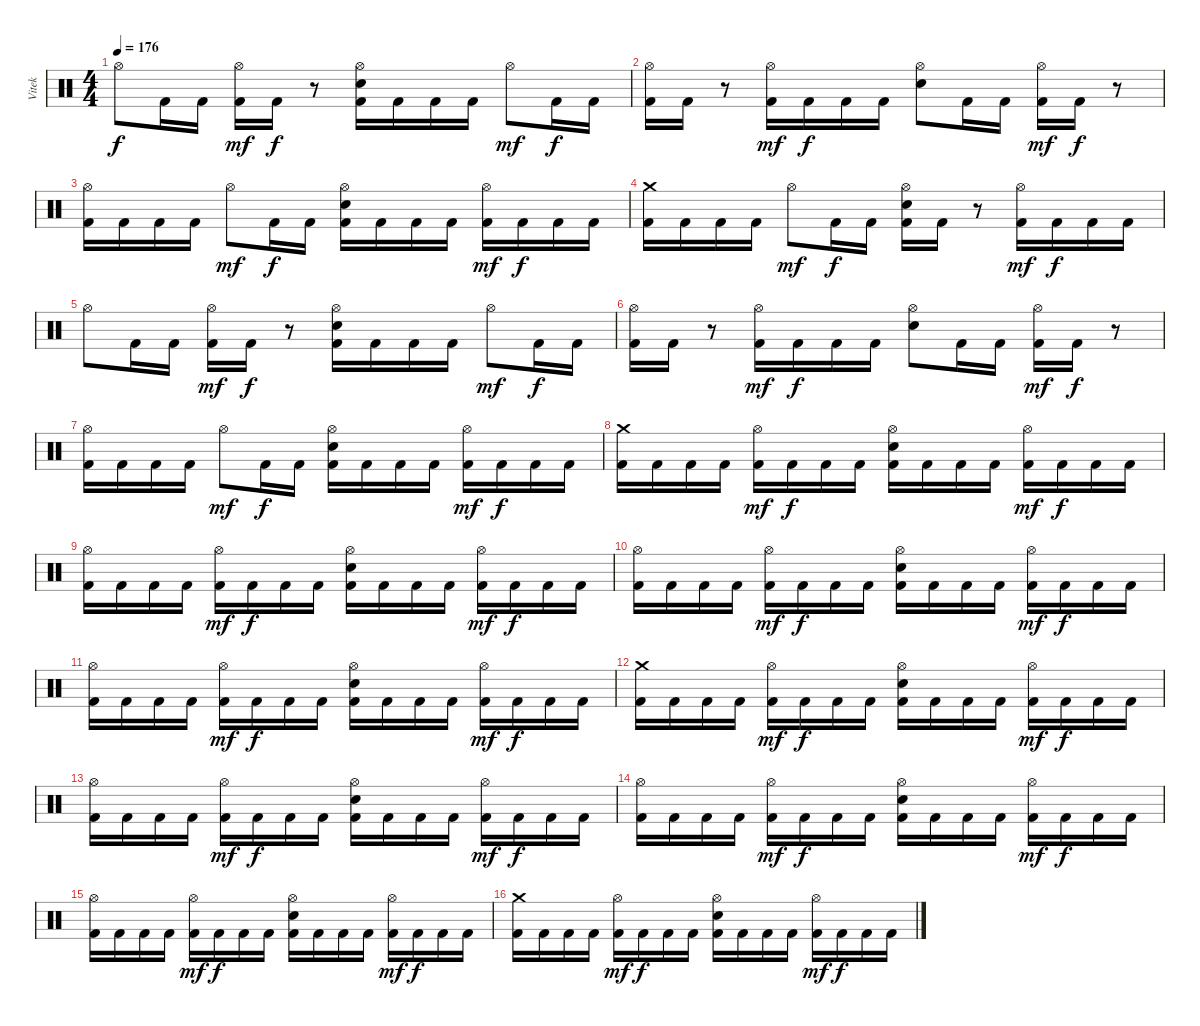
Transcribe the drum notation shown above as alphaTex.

\track ("Vitek" "Vitek") {instrument percussion}
\staff {score}
\articulation defaults
\ts (4 4)
\tempo 176
\clef neutral
\ks c "Hi-Hat (open)".8{dy f} "Kick (hit) 2".16 "Kick (hit) 2".16
("Hi-Hat (open)" "Kick (hit) 2").16{dy mf} "Kick (hit) 2".16{dy f} r.8 ("Hi-Hat (open)" "Electric Snare (hit)" "Kick (hit) 2").16 "Kick (hit) 2".16 "Kick (hit) 2".16 "Kick (hit) 2".16 "Hi-Hat (open)".8{dy mf} "Kick (hit) 2".16{dy f} "Kick (hit) 2".16 |
("Hi-Hat (open)" "Kick (hit) 2").16 "Kick (hit) 2".16 r.8 ("Hi-Hat (open)" "Kick (hit) 2").16{dy mf} "Kick (hit) 2".16{dy f} "Kick (hit) 2".16 "Kick (hit) 2".16 ("Hi-Hat (open)" "Electric Snare (hit)").8 "Kick (hit) 2".16 "Kick (hit) 2".16 ("Hi-Hat (open)" "Kick (hit) 2").16{dy mf} "Kick (hit) 2".16{dy f} r.8 |
("Hi-Hat (open)" "Kick (hit) 2").16 "Kick (hit) 2".16 "Kick (hit) 2".16 "Kick (hit) 2".16 "Hi-Hat (open)".8{dy mf} "Kick (hit) 2".16{dy f} "Kick (hit) 2".16 ("Hi-Hat (open)" "Electric Snare (hit)" "Kick (hit) 2").16 "Kick (hit) 2".16 "Kick (hit) 2".16 "Kick (hit) 2".16 ("Hi-Hat (open)" "Kick (hit) 2").16{dy mf} "Kick (hit) 2".16{dy f} "Kick (hit) 2".16 "Kick (hit) 2".16 |
("Crash medium (hit)" "Kick (hit) 2").16 "Kick (hit) 2".16 "Kick (hit) 2".16 "Kick (hit) 2".16 "Hi-Hat (open)".8{dy mf} "Kick (hit) 2".16{dy f} "Kick (hit) 2".16 ("Hi-Hat (open)" "Electric Snare (hit)" "Kick (hit) 2").16 "Kick (hit) 2".16 r.8 ("Hi-Hat (open)" "Kick (hit) 2").16{dy mf} "Kick (hit) 2".16{dy f} "Kick (hit) 2".16 "Kick (hit) 2".16 |
"Hi-Hat (open)".8 "Kick (hit) 2".16 "Kick (hit) 2".16 ("Hi-Hat (open)" "Kick (hit) 2").16{dy mf} "Kick (hit) 2".16{dy f} r.8 ("Hi-Hat (open)" "Electric Snare (hit)" "Kick (hit) 2").16 "Kick (hit) 2".16 "Kick (hit) 2".16 "Kick (hit) 2".16 "Hi-Hat (open)".8{dy mf} "Kick (hit) 2".16{dy f} "Kick (hit) 2".16 |
("Hi-Hat (open)" "Kick (hit) 2").16 "Kick (hit) 2".16 r.8 ("Hi-Hat (open)" "Kick (hit) 2").16{dy mf} "Kick (hit) 2".16{dy f} "Kick (hit) 2".16 "Kick (hit) 2".16 ("Hi-Hat (open)" "Electric Snare (hit)").8 "Kick (hit) 2".16 "Kick (hit) 2".16 ("Hi-Hat (open)" "Kick (hit) 2").16{dy mf} "Kick (hit) 2".16{dy f} r.8 |
("Hi-Hat (open)" "Kick (hit) 2").16 "Kick (hit) 2".16 "Kick (hit) 2".16 "Kick (hit) 2".16 "Hi-Hat (open)".8{dy mf} "Kick (hit) 2".16{dy f} "Kick (hit) 2".16 ("Hi-Hat (open)" "Electric Snare (hit)" "Kick (hit) 2").16 "Kick (hit) 2".16 "Kick (hit) 2".16 "Kick (hit) 2".16 ("Hi-Hat (open)" "Kick (hit) 2").16{dy mf} "Kick (hit) 2".16{dy f} "Kick (hit) 2".16 "Kick (hit) 2".16 |
("Crash medium (hit)" "Kick (hit) 2").16 "Kick (hit) 2".16 "Kick (hit) 2".16 "Kick (hit) 2".16 ("Hi-Hat (open)" "Kick (hit) 2").16{dy mf} "Kick (hit) 2".16{dy f} "Kick (hit) 2".16 "Kick (hit) 2".16 ("Hi-Hat (open)" "Electric Snare (hit)" "Kick (hit) 2").16 "Kick (hit) 2".16 "Kick (hit) 2".16 "Kick (hit) 2".16 ("Hi-Hat (open)" "Kick (hit) 2").16{dy mf} "Kick (hit) 2".16{dy f} "Kick (hit) 2".16 "Kick (hit) 2".16 |
("Hi-Hat (open)" "Kick (hit) 2").16 "Kick (hit) 2".16 "Kick (hit) 2".16 "Kick (hit) 2".16 ("Hi-Hat (open)" "Kick (hit) 2").16{dy mf} "Kick (hit) 2".16{dy f} "Kick (hit) 2".16 "Kick (hit) 2".16 ("Hi-Hat (open)" "Electric Snare (hit)" "Kick (hit) 2").16 "Kick (hit) 2".16 "Kick (hit) 2".16 "Kick (hit) 2".16 ("Hi-Hat (open)" "Kick (hit) 2").16{dy mf} "Kick (hit) 2".16{dy f} "Kick (hit) 2".16 "Kick (hit) 2".16 |
("Hi-Hat (open)" "Kick (hit) 2").16 "Kick (hit) 2".16 "Kick (hit) 2".16 "Kick (hit) 2".16 ("Hi-Hat (open)" "Kick (hit) 2").16{dy mf} "Kick (hit) 2".16{dy f} "Kick (hit) 2".16 "Kick (hit) 2".16 ("Hi-Hat (open)" "Electric Snare (hit)" "Kick (hit) 2").16 "Kick (hit) 2".16 "Kick (hit) 2".16 "Kick (hit) 2".16 ("Hi-Hat (open)" "Kick (hit) 2").16{dy mf} "Kick (hit) 2".16{dy f} "Kick (hit) 2".16 "Kick (hit) 2".16 |
("Hi-Hat (open)" "Kick (hit) 2").16 "Kick (hit) 2".16 "Kick (hit) 2".16 "Kick (hit) 2".16 ("Hi-Hat (open)" "Kick (hit) 2").16{dy mf} "Kick (hit) 2".16{dy f} "Kick (hit) 2".16 "Kick (hit) 2".16 ("Hi-Hat (open)" "Electric Snare (hit)" "Kick (hit) 2").16 "Kick (hit) 2".16 "Kick (hit) 2".16 "Kick (hit) 2".16 ("Hi-Hat (open)" "Kick (hit) 2").16{dy mf} "Kick (hit) 2".16{dy f} "Kick (hit) 2".16 "Kick (hit) 2".16 |
("Crash medium (hit)" "Kick (hit) 2").16 "Kick (hit) 2".16 "Kick (hit) 2".16 "Kick (hit) 2".16 ("Hi-Hat (open)" "Kick (hit) 2").16{dy mf} "Kick (hit) 2".16{dy f} "Kick (hit) 2".16 "Kick (hit) 2".16 ("Hi-Hat (open)" "Electric Snare (hit)" "Kick (hit) 2").16 "Kick (hit) 2".16 "Kick (hit) 2".16 "Kick (hit) 2".16 ("Hi-Hat (open)" "Kick (hit) 2").16{dy mf} "Kick (hit) 2".16{dy f} "Kick (hit) 2".16 "Kick (hit) 2".16 |
("Hi-Hat (open)" "Kick (hit) 2").16 "Kick (hit) 2".16 "Kick (hit) 2".16 "Kick (hit) 2".16 ("Hi-Hat (open)" "Kick (hit) 2").16{dy mf} "Kick (hit) 2".16{dy f} "Kick (hit) 2".16 "Kick (hit) 2".16 ("Hi-Hat (open)" "Electric Snare (hit)" "Kick (hit) 2").16 "Kick (hit) 2".16 "Kick (hit) 2".16 "Kick (hit) 2".16 ("Hi-Hat (open)" "Kick (hit) 2").16{dy mf} "Kick (hit) 2".16{dy f} "Kick (hit) 2".16 "Kick (hit) 2".16 |
("Hi-Hat (open)" "Kick (hit) 2").16 "Kick (hit) 2".16 "Kick (hit) 2".16 "Kick (hit) 2".16 ("Hi-Hat (open)" "Kick (hit) 2").16{dy mf} "Kick (hit) 2".16{dy f} "Kick (hit) 2".16 "Kick (hit) 2".16 ("Hi-Hat (open)" "Electric Snare (hit)" "Kick (hit) 2").16 "Kick (hit) 2".16 "Kick (hit) 2".16 "Kick (hit) 2".16 ("Hi-Hat (open)" "Kick (hit) 2").16{dy mf} "Kick (hit) 2".16{dy f} "Kick (hit) 2".16 "Kick (hit) 2".16 |
("Hi-Hat (open)" "Kick (hit) 2").16 "Kick (hit) 2".16 "Kick (hit) 2".16 "Kick (hit) 2".16 ("Hi-Hat (open)" "Kick (hit) 2").16{dy mf} "Kick (hit) 2".16{dy f} "Kick (hit) 2".16 "Kick (hit) 2".16 ("Hi-Hat (open)" "Electric Snare (hit)" "Kick (hit) 2").16 "Kick (hit) 2".16 "Kick (hit) 2".16 "Kick (hit) 2".16 ("Hi-Hat (open)" "Kick (hit) 2").16{dy mf} "Kick (hit) 2".16{dy f} "Kick (hit) 2".16 "Kick (hit) 2".16 |
("Crash medium (hit)" "Kick (hit) 2").16 "Kick (hit) 2".16 "Kick (hit) 2".16 "Kick (hit) 2".16 ("Hi-Hat (open)" "Kick (hit) 2").16{dy mf} "Kick (hit) 2".16{dy f} "Kick (hit) 2".16 "Kick (hit) 2".16 ("Hi-Hat (open)" "Electric Snare (hit)" "Kick (hit) 2").16 "Kick (hit) 2".16 "Kick (hit) 2".16 "Kick (hit) 2".16 ("Hi-Hat (open)" "Kick (hit) 2").16{dy mf} "Kick (hit) 2".16{dy f} "Kick (hit) 2".16 "Kick (hit) 2".16
